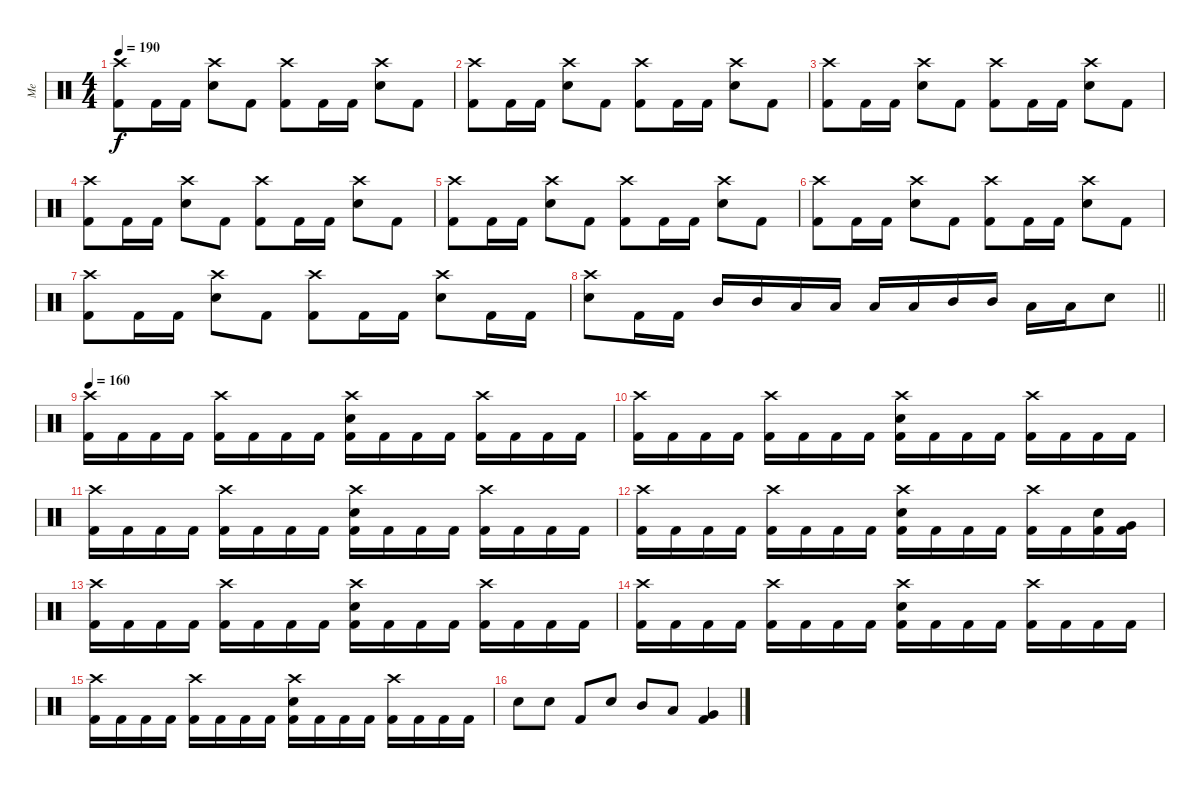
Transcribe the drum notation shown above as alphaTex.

\track ("Me" "Me") {instrument percussion}
\staff {score}
\articulation defaults
\ts (4 4)
\tempo 190
\clef neutral
\ks c
("Crash high (hit)" "Kick (hit) 2").8{dy f} "Kick (hit) 2".16 "Kick (hit) 2".16 ("Crash high (hit)" "Snare (hit) 2").8 "Kick (hit) 2".8 ("Crash high (hit)" "Kick (hit) 2").8 "Kick (hit) 2".16 "Kick (hit) 2".16 ("Crash high (hit)" "Snare (hit) 2").8 "Kick (hit) 2".8 |
("Crash high (hit)" "Kick (hit) 2").8 "Kick (hit) 2".16 "Kick (hit) 2".16 ("Crash high (hit)" "Snare (hit) 2").8 "Kick (hit) 2".8 ("Crash high (hit)" "Kick (hit) 2").8 "Kick (hit) 2".16 "Kick (hit) 2".16 ("Crash high (hit)" "Snare (hit) 2").8 "Kick (hit) 2".8 |
("Crash high (hit)" "Kick (hit) 2").8 "Kick (hit) 2".16 "Kick (hit) 2".16 ("Crash high (hit)" "Snare (hit) 2").8 "Kick (hit) 2".8 ("Crash high (hit)" "Kick (hit) 2").8 "Kick (hit) 2".16 "Kick (hit) 2".16 ("Crash high (hit)" "Snare (hit) 2").8 "Kick (hit) 2".8 |
("Crash high (hit)" "Kick (hit) 2").8 "Kick (hit) 2".16 "Kick (hit) 2".16 ("Crash high (hit)" "Snare (hit) 2").8 "Kick (hit) 2".8 ("Crash high (hit)" "Kick (hit) 2").8 "Kick (hit) 2".16 "Kick (hit) 2".16 ("Crash high (hit)" "Snare (hit) 2").8 "Kick (hit) 2".8 |
("Crash high (hit)" "Kick (hit) 2").8 "Kick (hit) 2".16 "Kick (hit) 2".16 ("Crash high (hit)" "Snare (hit) 2").8 "Kick (hit) 2".8 ("Crash high (hit)" "Kick (hit) 2").8 "Kick (hit) 2".16 "Kick (hit) 2".16 ("Crash high (hit)" "Snare (hit) 2").8 "Kick (hit) 2".8 |
("Crash high (hit)" "Kick (hit) 2").8 "Kick (hit) 2".16 "Kick (hit) 2".16 ("Crash high (hit)" "Snare (hit) 2").8 "Kick (hit) 2".8 ("Crash high (hit)" "Kick (hit) 2").8 "Kick (hit) 2".16 "Kick (hit) 2".16 ("Crash high (hit)" "Snare (hit) 2").8 "Kick (hit) 2".8 |
("Crash high (hit)" "Kick (hit) 2").8 "Kick (hit) 2".16 "Kick (hit) 2".16 ("Crash high (hit)" "Snare (hit) 2").8 "Kick (hit) 2".8 ("Crash high (hit)" "Kick (hit) 2").8 "Kick (hit) 2".16 "Kick (hit) 2".16 ("Crash high (hit)" "Snare (hit) 2").8 "Kick (hit) 2".16 "Kick (hit) 2".16 |
\barLineRight lightlight
("Crash high (hit)" "Snare (hit) 2").8 "Kick (hit) 2".16 "Kick (hit) 2".16 "Mid Tom (hit)".16 "Mid Tom (hit)".16 "Low Tom (hit)".16 "Low Tom (hit)".16 "Low Tom (hit)".16 "Low Tom (hit)".16 "Mid Tom (hit)".16 "Mid Tom (hit)".16 "Low Tom (hit)".16 "Low Tom (hit)".16 "Snare (hit) 2".8 |
\tempo 160
("Crash high (hit)" "Kick (hit) 2").16 "Kick (hit) 2".16 "Kick (hit) 2".16 "Kick (hit) 2".16 ("Crash high (hit)" "Kick (hit) 2").16 "Kick (hit) 2".16 "Kick (hit) 2".16 "Kick (hit) 2".16 ("Crash high (hit)" "Snare (hit) 2" "Kick (hit) 2").16 "Kick (hit) 2".16 "Kick (hit) 2".16 "Kick (hit) 2".16 ("Crash high (hit)" "Kick (hit) 2").16 "Kick (hit) 2".16 "Kick (hit) 2".16 "Kick (hit) 2".16 |
("Crash high (hit)" "Kick (hit) 2").16 "Kick (hit) 2".16 "Kick (hit) 2".16 "Kick (hit) 2".16 ("Crash high (hit)" "Kick (hit) 2").16 "Kick (hit) 2".16 "Kick (hit) 2".16 "Kick (hit) 2".16 ("Crash high (hit)" "Snare (hit) 2" "Kick (hit) 2").16 "Kick (hit) 2".16 "Kick (hit) 2".16 "Kick (hit) 2".16 ("Crash high (hit)" "Kick (hit) 2").16 "Kick (hit) 2".16 "Kick (hit) 2".16 "Kick (hit) 2".16 |
("Crash high (hit)" "Kick (hit) 2").16 "Kick (hit) 2".16 "Kick (hit) 2".16 "Kick (hit) 2".16 ("Crash high (hit)" "Kick (hit) 2").16 "Kick (hit) 2".16 "Kick (hit) 2".16 "Kick (hit) 2".16 ("Crash high (hit)" "Snare (hit) 2" "Kick (hit) 2").16 "Kick (hit) 2".16 "Kick (hit) 2".16 "Kick (hit) 2".16 ("Crash high (hit)" "Kick (hit) 2").16 "Kick (hit) 2".16 "Kick (hit) 2".16 "Kick (hit) 2".16 |
("Crash high (hit)" "Kick (hit) 2").16 "Kick (hit) 2".16 "Kick (hit) 2".16 "Kick (hit) 2".16 ("Crash high (hit)" "Kick (hit) 2").16 "Kick (hit) 2".16 "Kick (hit) 2".16 "Kick (hit) 2".16 ("Crash high (hit)" "Snare (hit) 2" "Kick (hit) 2").16 "Kick (hit) 2".16 "Kick (hit) 2".16 "Kick (hit) 2".16 ("Crash high (hit)" "Kick (hit) 2").16 "Kick (hit) 2".16 ("Snare (hit) 2" "Kick (hit) 2").16 ("Very Low Tom (hit)" "Kick (hit) 2").16 |
("Crash high (hit)" "Kick (hit) 2").16 "Kick (hit) 2".16 "Kick (hit) 2".16 "Kick (hit) 2".16 ("Crash high (hit)" "Kick (hit) 2").16 "Kick (hit) 2".16 "Kick (hit) 2".16 "Kick (hit) 2".16 ("Crash high (hit)" "Snare (hit) 2" "Kick (hit) 2").16 "Kick (hit) 2".16 "Kick (hit) 2".16 "Kick (hit) 2".16 ("Crash high (hit)" "Kick (hit) 2").16 "Kick (hit) 2".16 "Kick (hit) 2".16 "Kick (hit) 2".16 |
("Crash high (hit)" "Kick (hit) 2").16 "Kick (hit) 2".16 "Kick (hit) 2".16 "Kick (hit) 2".16 ("Crash high (hit)" "Kick (hit) 2").16 "Kick (hit) 2".16 "Kick (hit) 2".16 "Kick (hit) 2".16 ("Crash high (hit)" "Snare (hit) 2" "Kick (hit) 2").16 "Kick (hit) 2".16 "Kick (hit) 2".16 "Kick (hit) 2".16 ("Crash high (hit)" "Kick (hit) 2").16 "Kick (hit) 2".16 "Kick (hit) 2".16 "Kick (hit) 2".16 |
("Crash high (hit)" "Kick (hit) 2").16 "Kick (hit) 2".16 "Kick (hit) 2".16 "Kick (hit) 2".16 ("Crash high (hit)" "Kick (hit) 2").16 "Kick (hit) 2".16 "Kick (hit) 2".16 "Kick (hit) 2".16 ("Crash high (hit)" "Snare (hit) 2" "Kick (hit) 2").16 "Kick (hit) 2".16 "Kick (hit) 2".16 "Kick (hit) 2".16 ("Crash high (hit)" "Kick (hit) 2").16 "Kick (hit) 2".16 "Kick (hit) 2".16 "Kick (hit) 2".16 |
"Snare (hit) 2".8 "Snare (hit) 2".8 "Kick (hit) 2".8 "Snare (hit) 2".8 "Mid Tom (hit)".8 "Low Tom (hit)".8 ("Very Low Tom (hit)" "Kick (hit) 2").4
